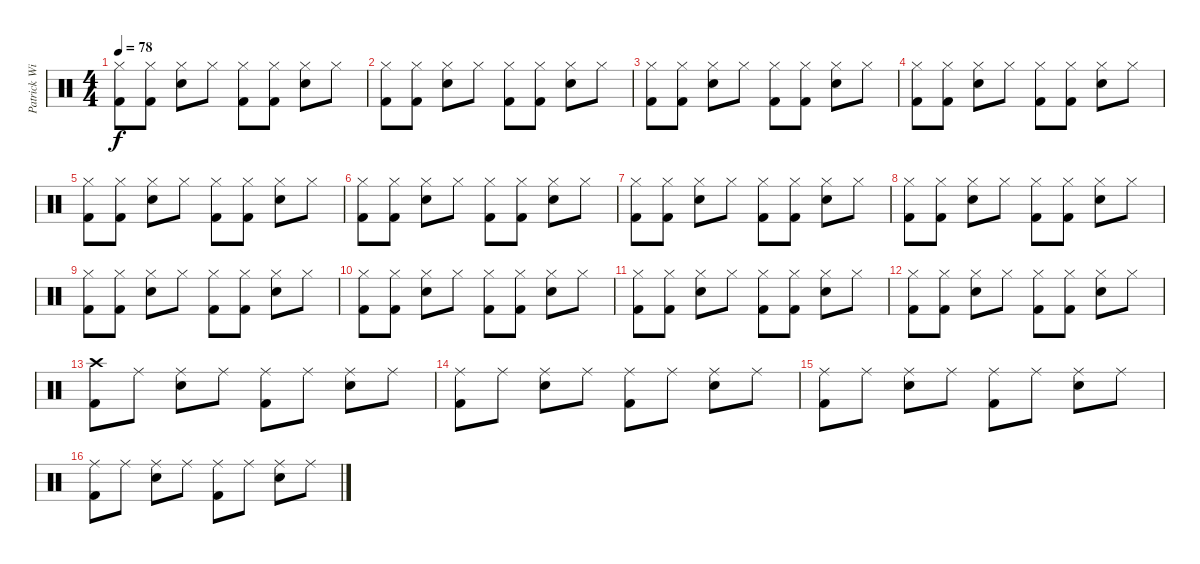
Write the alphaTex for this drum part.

\track ("Patrick Wilson" "Patrick Wi") {instrument percussion}
\staff {score}
\articulation defaults
\ts (4 4)
\tempo 78
\clef neutral
\ks c
("Kick (hit) 2" "Hi-Hat (closed)").8{dy f} ("Kick (hit) 2" "Hi-Hat (closed)").8 ("Snare (hit) 2" "Hi-Hat (closed)").8 "Hi-Hat (closed)".8 ("Kick (hit) 2" "Hi-Hat (closed)").8 ("Kick (hit) 2" "Hi-Hat (closed)").8 ("Snare (hit) 2" "Hi-Hat (closed)").8 "Hi-Hat (closed)".8 |
("Kick (hit) 2" "Hi-Hat (closed)").8 ("Kick (hit) 2" "Hi-Hat (closed)").8 ("Snare (hit) 2" "Hi-Hat (closed)").8 "Hi-Hat (closed)".8 ("Kick (hit) 2" "Hi-Hat (closed)").8 ("Kick (hit) 2" "Hi-Hat (closed)").8 ("Snare (hit) 2" "Hi-Hat (closed)").8 "Hi-Hat (closed)".8 |
("Kick (hit) 2" "Hi-Hat (closed)").8 ("Kick (hit) 2" "Hi-Hat (closed)").8 ("Snare (hit) 2" "Hi-Hat (closed)").8 "Hi-Hat (closed)".8 ("Kick (hit) 2" "Hi-Hat (closed)").8 ("Kick (hit) 2" "Hi-Hat (closed)").8 ("Snare (hit) 2" "Hi-Hat (closed)").8 "Hi-Hat (closed)".8 |
("Kick (hit) 2" "Hi-Hat (closed)").8 ("Kick (hit) 2" "Hi-Hat (closed)").8 ("Snare (hit) 2" "Hi-Hat (closed)").8 "Hi-Hat (closed)".8 ("Kick (hit) 2" "Hi-Hat (closed)").8 ("Kick (hit) 2" "Hi-Hat (closed)").8 ("Snare (hit) 2" "Hi-Hat (closed)").8 "Hi-Hat (closed)".8 |
("Kick (hit) 2" "Hi-Hat (closed)").8 ("Kick (hit) 2" "Hi-Hat (closed)").8 ("Snare (hit) 2" "Hi-Hat (closed)").8 "Hi-Hat (closed)".8 ("Kick (hit) 2" "Hi-Hat (closed)").8 ("Kick (hit) 2" "Hi-Hat (closed)").8 ("Snare (hit) 2" "Hi-Hat (closed)").8 "Hi-Hat (closed)".8 |
("Kick (hit) 2" "Hi-Hat (closed)").8 ("Kick (hit) 2" "Hi-Hat (closed)").8 ("Snare (hit) 2" "Hi-Hat (closed)").8 "Hi-Hat (closed)".8 ("Kick (hit) 2" "Hi-Hat (closed)").8 ("Kick (hit) 2" "Hi-Hat (closed)").8 ("Snare (hit) 2" "Hi-Hat (closed)").8 "Hi-Hat (closed)".8 |
("Kick (hit) 2" "Hi-Hat (closed)").8 ("Kick (hit) 2" "Hi-Hat (closed)").8 ("Snare (hit) 2" "Hi-Hat (closed)").8 "Hi-Hat (closed)".8 ("Kick (hit) 2" "Hi-Hat (closed)").8 ("Kick (hit) 2" "Hi-Hat (closed)").8 ("Snare (hit) 2" "Hi-Hat (closed)").8 "Hi-Hat (closed)".8 |
("Kick (hit) 2" "Hi-Hat (closed)").8 ("Kick (hit) 2" "Hi-Hat (closed)").8 ("Snare (hit) 2" "Hi-Hat (closed)").8 "Hi-Hat (closed)".8 ("Kick (hit) 2" "Hi-Hat (closed)").8 ("Kick (hit) 2" "Hi-Hat (closed)").8 ("Snare (hit) 2" "Hi-Hat (closed)").8 "Hi-Hat (closed)".8 |
("Kick (hit) 2" "Hi-Hat (closed)").8 ("Kick (hit) 2" "Hi-Hat (closed)").8 ("Snare (hit) 2" "Hi-Hat (closed)").8 "Hi-Hat (closed)".8 ("Kick (hit) 2" "Hi-Hat (closed)").8 ("Kick (hit) 2" "Hi-Hat (closed)").8 ("Snare (hit) 2" "Hi-Hat (closed)").8 "Hi-Hat (closed)".8 |
("Kick (hit) 2" "Hi-Hat (closed)").8 ("Kick (hit) 2" "Hi-Hat (closed)").8 ("Snare (hit) 2" "Hi-Hat (closed)").8 "Hi-Hat (closed)".8 ("Kick (hit) 2" "Hi-Hat (closed)").8 ("Kick (hit) 2" "Hi-Hat (closed)").8 ("Snare (hit) 2" "Hi-Hat (closed)").8 "Hi-Hat (closed)".8 |
("Kick (hit) 2" "Hi-Hat (closed)").8 ("Kick (hit) 2" "Hi-Hat (closed)").8 ("Snare (hit) 2" "Hi-Hat (closed)").8 "Hi-Hat (closed)".8 ("Kick (hit) 2" "Hi-Hat (closed)").8 ("Kick (hit) 2" "Hi-Hat (closed)").8 ("Snare (hit) 2" "Hi-Hat (closed)").8 "Hi-Hat (closed)".8 |
("Kick (hit) 2" "Hi-Hat (closed)").8 ("Kick (hit) 2" "Hi-Hat (closed)").8 ("Snare (hit) 2" "Hi-Hat (closed)").8 "Hi-Hat (closed)".8 ("Kick (hit) 2" "Hi-Hat (closed)").8 ("Kick (hit) 2" "Hi-Hat (closed)").8 ("Snare (hit) 2" "Hi-Hat (closed)").8 "Hi-Hat (closed)".8 |
("Crash high (hit)" "Kick (hit) 2").8 "Ride (middle)".8 ("Ride (middle)" "Snare (hit) 2").8 "Ride (middle)".8 ("Ride (middle)" "Kick (hit) 2").8 "Ride (middle)".8 ("Ride (middle)" "Snare (hit) 2").8 "Ride (middle)".8 |
("Ride (middle)" "Kick (hit) 2").8 "Ride (middle)".8 ("Ride (middle)" "Snare (hit) 2").8 "Ride (middle)".8 ("Ride (middle)" "Kick (hit) 2").8 "Ride (middle)".8 ("Ride (middle)" "Snare (hit) 2").8 "Ride (middle)".8 |
("Ride (middle)" "Kick (hit) 2").8 "Ride (middle)".8 ("Ride (middle)" "Snare (hit) 2").8 "Ride (middle)".8 ("Ride (middle)" "Kick (hit) 2").8 "Ride (middle)".8 ("Ride (middle)" "Snare (hit) 2").8 "Ride (middle)".8 |
("Ride (middle)" "Kick (hit) 2").8 "Ride (middle)".8 ("Ride (middle)" "Snare (hit) 2").8 "Ride (middle)".8 ("Ride (middle)" "Kick (hit) 2").8 "Ride (middle)".8 ("Ride (middle)" "Snare (hit) 2").8 "Ride (middle)".8
